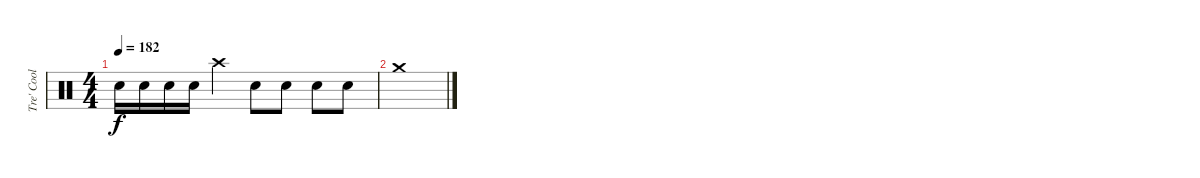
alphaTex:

\track ("Tre' Cool (DRUMS)!!!!!!!!!" "Tre' Cool ") {instrument percussion}
\staff {score}
\articulation defaults
\ts (4 4)
\tempo 182
\clef neutral
\ks c "Snare (hit) 2".16{dy f} "Snare (hit) 2".16 "Snare (hit) 2".16 "Snare (hit) 2".16 "Crash high (hit)".4 "Snare (hit) 2".8 "Snare (hit) 2".8 "Snare (hit) 2".8 "Snare (hit) 2".8
|
"Crash medium (hit)".1
